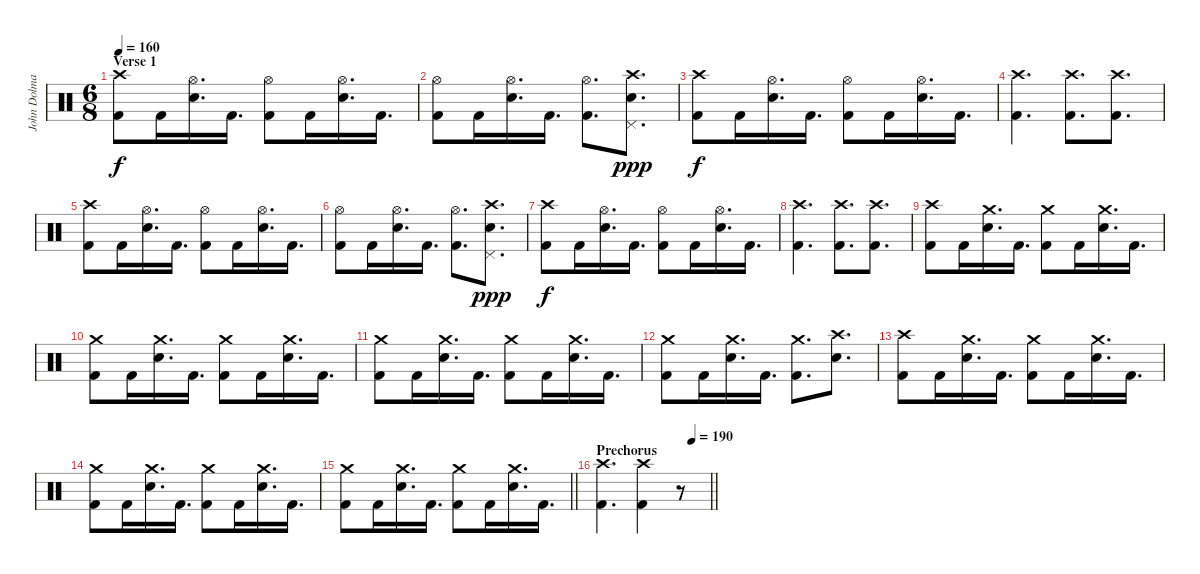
\track ("John Dolmayan" "John Dolma") {instrument percussion}
\staff {score}
\articulation defaults
\ts (6 8)
\section ("" "Verse 1")
\tempo 160
\clef neutral
\ks c
("Crash high (hit)" "Kick (hit) 2").8{dy f} "Kick (hit) 2".16 ("Hi-Hat (open)" "Electric Snare (hit)").16{d} "Kick (hit) 2".16{d} ("Hi-Hat (open)" "Kick (hit) 2").8 "Kick (hit) 2".16 ("Hi-Hat (open)" "Electric Snare (hit)").16{d} "Kick (hit) 2".16{d} |
("Hi-Hat (open)" "Kick (hit) 2").8 "Kick (hit) 2".16 ("Hi-Hat (open)" "Electric Snare (hit)").16{d} "Kick (hit) 2".16{d} ("Hi-Hat (open)" "Kick (hit) 2").8{d} ("Crash high (hit)" "Pedal Hi-Hat (hit)" "Electric Snare (hit)").8{d dy ppp} |
("Crash high (hit)" "Kick (hit) 2").8{dy f} "Kick (hit) 2".16 ("Hi-Hat (open)" "Electric Snare (hit)").16{d} "Kick (hit) 2".16{d} ("Hi-Hat (open)" "Kick (hit) 2").8 "Kick (hit) 2".16 ("Hi-Hat (open)" "Electric Snare (hit)").16{d} "Kick (hit) 2".16{d} |
("Crash high (hit)" "Kick (hit) 2").4{d} ("Crash high (hit)" "Kick (hit) 2").8{d} ("Crash high (hit)" "Kick (hit) 2").8{d} |
("Crash high (hit)" "Kick (hit) 2").8 "Kick (hit) 2".16 ("Hi-Hat (open)" "Electric Snare (hit)").16{d} "Kick (hit) 2".16{d} ("Hi-Hat (open)" "Kick (hit) 2").8 "Kick (hit) 2".16 ("Hi-Hat (open)" "Electric Snare (hit)").16{d} "Kick (hit) 2".16{d} |
("Hi-Hat (open)" "Kick (hit) 2").8 "Kick (hit) 2".16 ("Hi-Hat (open)" "Electric Snare (hit)").16{d} "Kick (hit) 2".16{d} ("Hi-Hat (open)" "Kick (hit) 2").8{d} ("Crash high (hit)" "Pedal Hi-Hat (hit)" "Electric Snare (hit)").8{d dy ppp} |
("Crash high (hit)" "Kick (hit) 2").8{dy f} "Kick (hit) 2".16 ("Hi-Hat (open)" "Electric Snare (hit)").16{d} "Kick (hit) 2".16{d} ("Hi-Hat (open)" "Kick (hit) 2").8 "Kick (hit) 2".16 ("Hi-Hat (open)" "Electric Snare (hit)").16{d} "Kick (hit) 2".16{d} |
("Crash high (hit)" "Kick (hit) 2").4{d} ("Crash high (hit)" "Kick (hit) 2").8{d} ("Crash high (hit)" "Kick (hit) 2").8{d} |
("Crash high (hit)" "Kick (hit) 2").8 "Kick (hit) 2".16 ("Crash medium (hit)" "Electric Snare (hit)").16{d} "Kick (hit) 2".16{d} ("Crash medium (hit)" "Kick (hit) 2").8 "Kick (hit) 2".16 ("Crash medium (hit)" "Electric Snare (hit)").16{d} "Kick (hit) 2".16{d} |
("Crash medium (hit)" "Kick (hit) 2").8 "Kick (hit) 2".16 ("Crash medium (hit)" "Electric Snare (hit)").16{d} "Kick (hit) 2".16{d} ("Crash medium (hit)" "Kick (hit) 2").8 "Kick (hit) 2".16 ("Crash medium (hit)" "Electric Snare (hit)").16{d} "Kick (hit) 2".16{d} |
("Crash medium (hit)" "Kick (hit) 2").8 "Kick (hit) 2".16 ("Crash medium (hit)" "Electric Snare (hit)").16{d} "Kick (hit) 2".16{d} ("Crash medium (hit)" "Kick (hit) 2").8 "Kick (hit) 2".16 ("Crash medium (hit)" "Electric Snare (hit)").16{d} "Kick (hit) 2".16{d} |
("Crash medium (hit)" "Kick (hit) 2").8 "Kick (hit) 2".16 ("Crash medium (hit)" "Electric Snare (hit)").16{d} "Kick (hit) 2".16{d} ("Crash medium (hit)" "Kick (hit) 2").8{d} ("Crash high (hit)" "Electric Snare (hit)").8{d} |
("Crash high (hit)" "Kick (hit) 2").8 "Kick (hit) 2".16 ("Crash medium (hit)" "Electric Snare (hit)").16{d} "Kick (hit) 2".16{d} ("Crash medium (hit)" "Kick (hit) 2").8 "Kick (hit) 2".16 ("Crash medium (hit)" "Electric Snare (hit)").16{d} "Kick (hit) 2".16{d} |
("Crash medium (hit)" "Kick (hit) 2").8 "Kick (hit) 2".16 ("Crash medium (hit)" "Electric Snare (hit)").16{d} "Kick (hit) 2".16{d} ("Crash medium (hit)" "Kick (hit) 2").8 "Kick (hit) 2".16 ("Crash medium (hit)" "Electric Snare (hit)").16{d} "Kick (hit) 2".16{d} |
\barLineRight lightlight
("Crash medium (hit)" "Kick (hit) 2").8 "Kick (hit) 2".16 ("Crash medium (hit)" "Electric Snare (hit)").16{d} "Kick (hit) 2".16{d} ("Crash medium (hit)" "Kick (hit) 2").8 "Kick (hit) 2".16 ("Crash medium (hit)" "Electric Snare (hit)").16{d} "Kick (hit) 2".16{d} |
\section ("" "Prechorus")
\tempo (190 0.8333333333333334)
\barLineRight lightlight
("Crash high (hit)" "Kick (hit) 2").4{d} ("Crash high (hit)" "Kick (hit) 2").4 r.8
